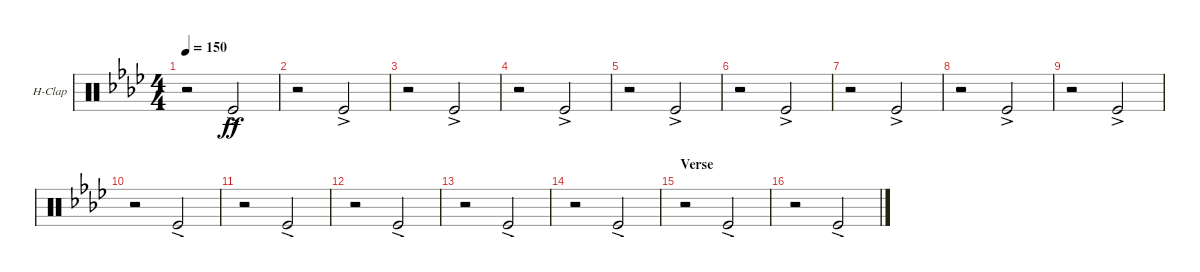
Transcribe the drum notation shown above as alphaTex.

\bracketExtendMode groupsimilarinstruments
\firstSystemTrackNameOrientation horizontal
\otherSystemsTrackNameOrientation horizontal
\track ("Hand Clap" "H-Clap") {instrument percussion}
\staff {score}
\articulation defaults
\ts (4 4)
\tempo 150
\clef neutral
\scale
0.333333
\ks ab
r.2{dy ff} "Kick (hit)"{ac}.2 |
\scale
0.333333 r.2 "Kick (hit)"{ac}.2 |
\scale
0.333333 r.2 "Kick (hit)"{ac}.2 |
\scale
0.333333 r.2 "Kick (hit)"{ac}.2 |
\scale
0.333333 r.2 "Kick (hit)"{ac}.2 |
\scale
0.333333 r.2 "Kick (hit)"{ac}.2 |
\scale
0.333333 r.2 "Kick (hit)"{ac}.2 |
\scale
0.333333 r.2 "Kick (hit)"{ac}.2 |
\scale
0.333333 r.2 "Kick (hit)"{ac}.2 |
\scale
0.333333 r.2 "Kick (hit)"{ac}.2 |
\scale
0.333333 r.2 "Kick (hit)"{ac}.2 |
\scale
0.333333 r.2 "Kick (hit)"{ac}.2 |
\scale
0.333333 r.2 "Kick (hit)"{ac}.2 |
\scale
0.333333 r.2 "Kick (hit)"{ac}.2 |
\section ("" "Verse")
\scale
0.333333 r.2 "Kick (hit)"{ac}.2 |
\scale
0.333333 r.2 "Kick (hit)"{ac}.2
